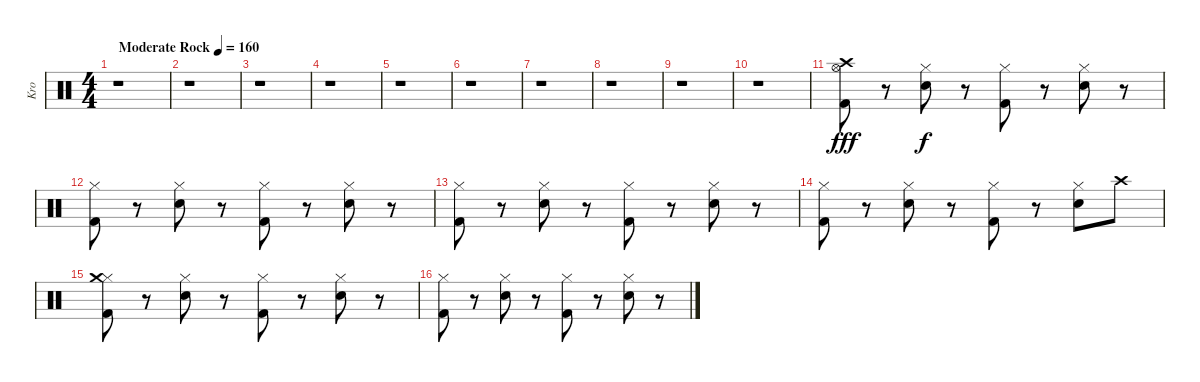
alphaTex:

\track ("Kro" "Kro") {instrument percussion}
\staff {score}
\articulation defaults
\ts (4 4)
\tempo (160 "Moderate Rock")
\clef neutral
\ks c
r.1{dy fff} |
r.1 |
r.1 |
r.1 |
r.1 |
r.1 |
r.1 |
r.1 |
r.1 |
r.1 |
("Hi-Hat (open)" "Kick (hit) 2" "Crash high (hit)").8 r.8 ("Hi-Hat (closed)" "Snare (hit) 2").8{dy f} r.8 ("Hi-Hat (closed)" "Kick (hit) 2").8 r.8 ("Hi-Hat (closed)" "Snare (hit) 2").8 r.8 |
("Hi-Hat (closed)" "Kick (hit) 2").8 r.8 ("Hi-Hat (closed)" "Snare (hit) 2").8 r.8 ("Hi-Hat (closed)" "Kick (hit) 2").8 r.8 ("Hi-Hat (closed)" "Snare (hit) 2").8 r.8 |
("Hi-Hat (closed)" "Kick (hit) 2").8 r.8 ("Hi-Hat (closed)" "Snare (hit) 2").8 r.8 ("Hi-Hat (closed)" "Kick (hit) 2").8 r.8 ("Hi-Hat (closed)" "Snare (hit) 2").8 r.8 |
("Hi-Hat (closed)" "Kick (hit) 2").8 r.8 ("Hi-Hat (closed)" "Snare (hit) 2").8 r.8 ("Hi-Hat (closed)" "Kick (hit) 2").8 r.8 ("Hi-Hat (closed)" "Snare (hit) 2").8 "Crash high (hit)".8 |
("Hi-Hat (closed)" "Kick (hit) 2" "Crash medium (hit)").8 r.8 ("Hi-Hat (closed)" "Snare (hit) 2").8 r.8 ("Hi-Hat (closed)" "Kick (hit) 2").8 r.8 ("Hi-Hat (closed)" "Snare (hit) 2").8 r.8 |
("Hi-Hat (closed)" "Kick (hit) 2").8 r.8 ("Hi-Hat (closed)" "Snare (hit) 2").8 r.8 ("Hi-Hat (closed)" "Kick (hit) 2").8 r.8 ("Hi-Hat (closed)" "Snare (hit) 2").8 r.8
